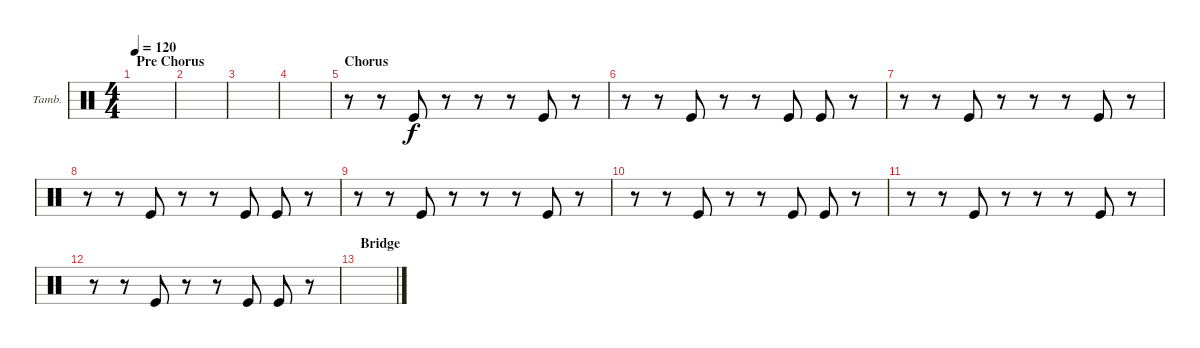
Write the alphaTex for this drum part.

\defaultSystemsLayout 4
\bracketExtendMode groupsimilarinstruments
\firstSystemTrackNameOrientation horizontal
\otherSystemsTrackNameOrientation horizontal
\track ("Tambourine" "Tamb.") {instrument percussion}
\staff {score}
\articulation defaults
\ts (4 4)
\section ("" "Pre Chorus")
\tempo 120
\clef neutral
\scale
0.333333
\ks c
|
\scale
0.333333 |
\scale
0.333333 |
\scale
0.333333 |
\section ("" "Chorus")
\scale
0.333333 r.8 r.8 "Kick (hit)".8 r.8 r.8 r.8 "Kick (hit)".8 r.8 |
\scale
0.333333 r.8 r.8 "Kick (hit)".8 r.8 r.8 "Kick (hit)".8 "Kick (hit)".8 r.8 |
\scale
0.333333 r.8 r.8 "Kick (hit)".8 r.8 r.8 r.8 "Kick (hit)".8 r.8 |
\scale
0.333333 r.8 r.8 "Kick (hit)".8 r.8 r.8 "Kick (hit)".8 "Kick (hit)".8 r.8 |
\scale
0.333333 r.8 r.8 "Kick (hit)".8 r.8 r.8 r.8 "Kick (hit)".8 r.8 |
\scale
0.333333 r.8 r.8 "Kick (hit)".8 r.8 r.8 "Kick (hit)".8 "Kick (hit)".8 r.8 |
\scale
0.333333 r.8 r.8 "Kick (hit)".8 r.8 r.8 r.8 "Kick (hit)".8 r.8 |
\scale
0.333333 r.8 r.8 "Kick (hit)".8 r.8 r.8 "Kick (hit)".8 "Kick (hit)".8 r.8 |
\section ("" "Bridge")
\scale
0.333333 |
\scale
0.333333 |
\scale
0.333333 |
\scale
0.333333
